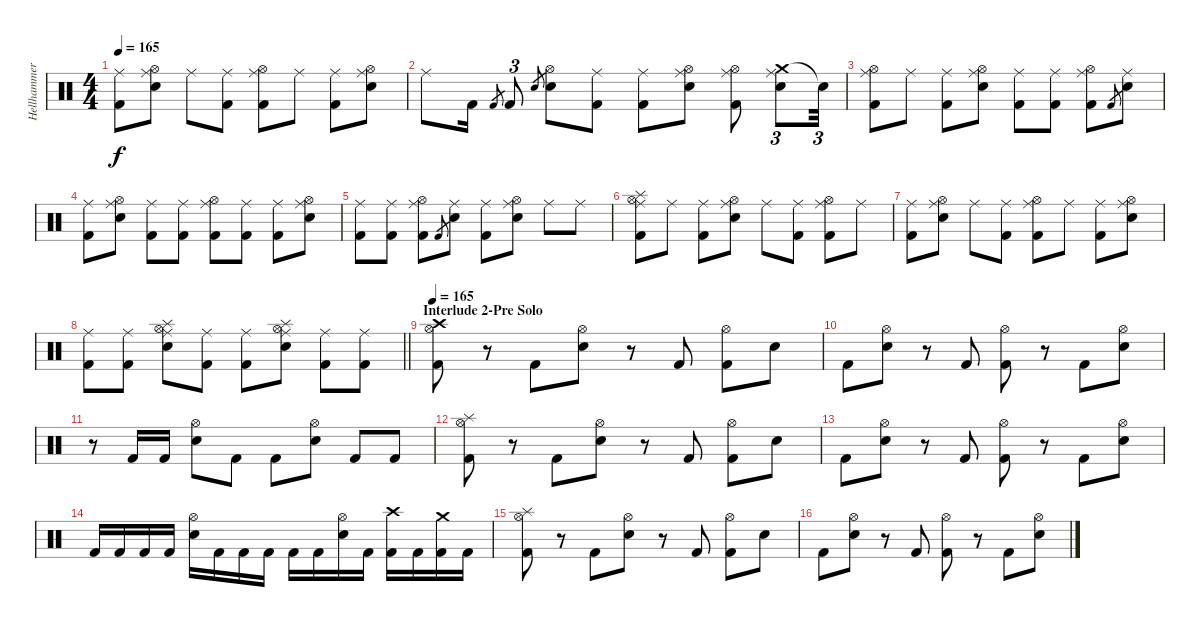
\track ("Hellhammer" "Hellhammer") {instrument percussion}
\staff {score}
\articulation defaults
\ts (4 4)
\tempo 165
\clef neutral
\ks c
("Ride (middle)" "Kick (hit) 2").8{dy f} ("Ride (middle)" "Hi-Hat (open)" "Snare (hit) 2").8 "Ride (middle)".8 ("Ride (middle)" "Kick (hit) 2").8 ("Ride (middle)" "Hi-Hat (open)" "Kick (hit) 2").8 "Ride (middle)".8 ("Ride (middle)" "Kick (hit) 2").8 ("Ride (middle)" "Hi-Hat (open)" "Snare (hit) 2").8 |
"Ride (middle)".8 "Kick (hit) 2".16 "Kick (hit) 2".8{gr} "Kick (hit) 2".8{tu (3 2)} "Electric Snare (hit)".8{gr} ("Hi-Hat (open)" "Snare (hit) 2").8 ("Ride (middle)" "Kick (hit) 2").8 ("Ride (middle)" "Kick (hit) 2").8 ("Ride (middle)" "Hi-Hat (open)" "Snare (hit) 2").8 ("Hi-Hat (open)" "Ride (middle)" "Kick (hit) 2").8 ("Crash medium (hit)" "Ride (middle)" "Snare (hit) 2").8{tu (3 2)} "Snare (hit)"{t}.32{tu (3 2)} |
("Ride (middle)" "Kick (hit) 2" "Hi-Hat (open)").8 "Ride (middle)".8 ("Ride (middle)" "Kick (hit) 2").8 ("Ride (middle)" "Snare (hit) 2" "Hi-Hat (open)").8 ("Ride (middle)" "Kick (hit) 2").8 ("Ride (middle)" "Kick (hit) 2").8 ("Ride (middle)" "Hi-Hat (open)" "Kick (hit) 2").8 "Kick (hit) 2".8{gr} ("Ride (middle)" "Snare (hit) 2").8 |
("Ride (middle)" "Kick (hit) 2").8 ("Ride (middle)" "Hi-Hat (open)" "Snare (hit) 2").8 ("Ride (middle)" "Kick (hit) 2").8 ("Ride (middle)" "Kick (hit) 2").8 ("Ride (middle)" "Hi-Hat (open)" "Kick (hit) 2").8 ("Ride (middle)" "Kick (hit) 2").8 ("Ride (middle)" "Kick (hit) 2").8 ("Ride (middle)" "Hi-Hat (open)" "Snare (hit) 2").8 |
("Ride (middle)" "Kick (hit) 2").8 ("Ride (middle)" "Kick (hit) 2").8 ("Ride (middle)" "Kick (hit) 2" "Hi-Hat (open)").8 "Kick (hit) 2".8{gr} ("Ride (middle)" "Snare (hit) 2").8 ("Ride (middle)" "Kick (hit) 2").8 ("Ride (middle)" "Snare (hit) 2" "Hi-Hat (open)").8 "Ride (middle)".8 "Ride (middle)".8 |
("Ride (middle)" "Splash (hit)" "Kick (hit) 2" "Hi-Hat (open)").8 "Ride (middle)".8 ("Ride (middle)" "Kick (hit) 2").8 ("Ride (middle)" "Snare (hit) 2" "Hi-Hat (open)").8 "Ride (middle)".8 ("Ride (middle)" "Kick (hit) 2").8 ("Ride (middle)" "Kick (hit) 2" "Hi-Hat (open)").8 "Ride (middle)".8 |
("Ride (middle)" "Kick (hit) 2").8 ("Ride (middle)" "Snare (hit) 2" "Hi-Hat (open)").8 "Ride (middle)".8 ("Ride (middle)" "Kick (hit) 2").8 ("Ride (middle)" "Kick (hit) 2" "Hi-Hat (open)").8 "Ride (middle)".8 ("Ride (middle)" "Kick (hit) 2").8 ("Ride (middle)" "Snare (hit) 2" "Hi-Hat (open)").8 |
\barLineRight lightlight
("Ride (middle)" "Kick (hit) 2").8 ("Ride (middle)" "Kick (hit) 2").8 ("Ride (middle)" "Splash (hit)" "Snare (hit) 2" "Hi-Hat (open)").8 ("Ride (middle)" "Kick (hit) 2").8 ("Ride (middle)" "Kick (hit) 2").8 ("Ride (middle)" "Splash (hit)" "Snare (hit) 2" "Hi-Hat (open)").8 ("Ride (middle)" "Kick (hit) 2").8 ("Ride (middle)" "Kick (hit) 2").8 |
\section ("" "Interlude 2-Pre Solo")
\tempo 165
("Crash high (hit)" "Hi-Hat (open)" "Kick (hit) 2").8 r.8 "Kick (hit) 2".8 ("Hi-Hat (open)" "Snare (hit) 2").8 r.8 "Kick (hit) 2".8 ("Hi-Hat (open)" "Kick (hit) 2").8 "Snare (hit)".8 |
"Kick (hit) 2".8 ("Hi-Hat (open)" "Snare (hit) 2").8 r.8 "Kick (hit) 2".8 ("Hi-Hat (open)" "Kick (hit) 2").8 r.8 "Kick (hit) 2".8 ("Hi-Hat (open)" "Snare (hit) 2").8 |
r.8 "Kick (hit) 2".16 "Kick (hit) 2".16 ("Hi-Hat (open)" "Snare (hit) 2").8 "Kick (hit) 2".8 "Kick (hit) 2".8 ("Hi-Hat (open)" "Snare (hit) 2").8 "Kick (hit) 2".8 "Kick (hit) 2".8 |
("Splash (hit)" "Hi-Hat (open)" "Kick (hit) 2").8 r.8 "Kick (hit) 2".8 ("Hi-Hat (open)" "Snare (hit) 2").8 r.8 "Kick (hit) 2".8 ("Hi-Hat (open)" "Kick (hit) 2").8 "Snare (hit)".8 |
"Kick (hit) 2".8 ("Hi-Hat (open)" "Snare (hit) 2").8 r.8 "Kick (hit) 2".8 ("Hi-Hat (open)" "Kick (hit) 2").8 r.8 "Kick (hit) 2".8 ("Hi-Hat (open)" "Snare (hit) 2").8 |
"Kick (hit) 2".16 "Kick (hit) 2".16 "Kick (hit) 2".16 "Kick (hit) 2".16 ("Hi-Hat (open)" "Snare (hit) 2").16 "Kick (hit) 2".16 "Kick (hit) 2".16 "Kick (hit) 2".16 "Kick (hit) 2".16 "Kick (hit) 2".16 ("Hi-Hat (open)" "Snare (hit) 2").16 "Kick (hit) 2".16 ("Crash high (hit)" "Kick (hit) 2").16 "Kick (hit) 2".16 ("Crash medium (hit)" "Kick (hit) 2").16 "Kick (hit) 2".16 |
("Splash (hit)" "Hi-Hat (open)" "Kick (hit) 2").8 r.8 "Kick (hit) 2".8 ("Hi-Hat (open)" "Snare (hit) 2").8 r.8 "Kick (hit) 2".8 ("Hi-Hat (open)" "Kick (hit) 2").8 "Snare (hit)".8 |
"Kick (hit) 2".8 ("Hi-Hat (open)" "Snare (hit) 2").8 r.8 "Kick (hit) 2".8 ("Hi-Hat (open)" "Kick (hit) 2").8 r.8 "Kick (hit) 2".8 ("Hi-Hat (open)" "Snare (hit) 2").8
